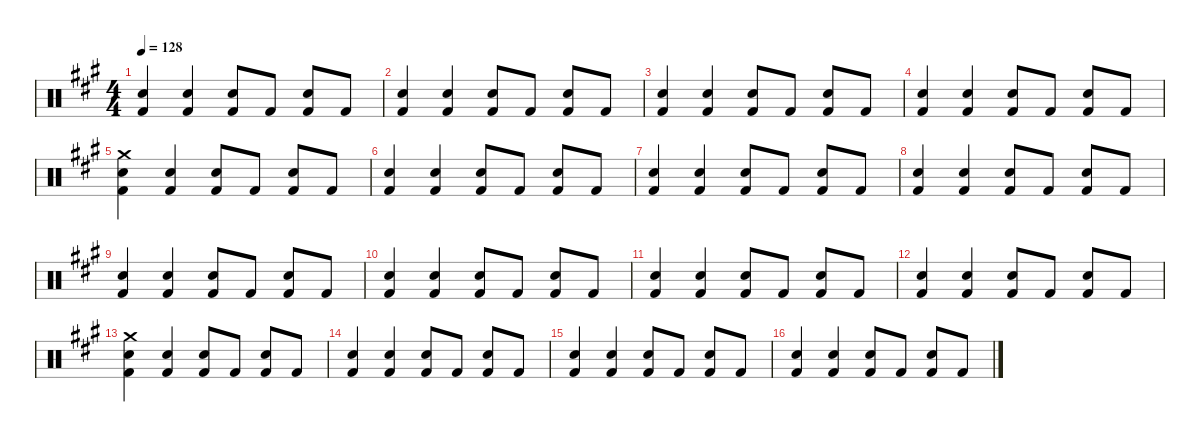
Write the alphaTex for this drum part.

\defaultSystemsLayout 4
\hideDynamics
\bracketExtendMode nobrackets
\singleTrackTrackNamePolicy hidden
\multiTrackTrackNamePolicy hidden
\firstSystemTrackNameMode fullname
\firstSystemTrackNameOrientation horizontal
\otherSystemsTrackNameOrientation horizontal
\track ("Drumkit" "Drums") {instrument percussion}
\staff {score}
\articulation defaults
\ts (4 4)
\tempo 128
\clef neutral
\ks a
("Snare (hit) 2"{acc forcenatural} "Kick (hit) 2"{acc forcenatural}).4{dy f beam Up} ("Snare (hit) 2"{acc forcenatural} "Kick (hit) 2"{acc forcenatural}).4{beam Up} ("Snare (hit) 2"{acc forcenatural} "Kick (hit) 2"{acc forcenatural}).8{beam Up} "Kick (hit) 2"{acc forcenatural}.8{beam Up} ("Snare (hit) 2"{acc forcenatural} "Kick (hit) 2"{acc forcenatural}).8{beam Up} "Kick (hit) 2"{acc forcenatural}.8{beam Up} |
("Snare (hit) 2"{acc forcenatural} "Kick (hit) 2"{acc forcenatural}).4{beam Up} ("Snare (hit) 2"{acc forcenatural} "Kick (hit) 2"{acc forcenatural}).4{beam Up} ("Snare (hit) 2"{acc forcenatural} "Kick (hit) 2"{acc forcenatural}).8{beam Up} "Kick (hit) 2"{acc forcenatural}.8{beam Up} ("Snare (hit) 2"{acc forcenatural} "Kick (hit) 2"{acc forcenatural}).8{beam Up} "Kick (hit) 2"{acc forcenatural}.8{beam Up} |
("Snare (hit) 2"{acc forcenatural} "Kick (hit) 2"{acc forcenatural}).4{beam Up} ("Snare (hit) 2"{acc forcenatural} "Kick (hit) 2"{acc forcenatural}).4{beam Up} ("Snare (hit) 2"{acc forcenatural} "Kick (hit) 2"{acc forcenatural}).8{beam Up} "Kick (hit) 2"{acc forcenatural}.8{beam Up} ("Snare (hit) 2"{acc forcenatural} "Kick (hit) 2"{acc forcenatural}).8{beam Up} "Kick (hit) 2"{acc forcenatural}.8{beam Up} |
("Snare (hit) 2"{acc forcenatural} "Kick (hit) 2"{acc forcenatural}).4{beam Up} ("Snare (hit) 2"{acc forcenatural} "Kick (hit) 2"{acc forcenatural}).4{beam Up} ("Snare (hit) 2"{acc forcenatural} "Kick (hit) 2"{acc forcenatural}).8{beam Up} "Kick (hit) 2"{acc forcenatural}.8{beam Up} ("Snare (hit) 2"{acc forcenatural} "Kick (hit) 2"{acc forcenatural}).8{beam Up} "Kick (hit) 2"{acc forcenatural}.8{beam Up} |
("Crash medium (hit)"{acc forcenatural} "Snare (hit) 2"{acc forcenatural} "Kick (hit) 2"{acc forcenatural}).4{beam Down} ("Snare (hit) 2"{acc forcenatural} "Kick (hit) 2"{acc forcenatural}).4{beam Up} ("Snare (hit) 2"{acc forcenatural} "Kick (hit) 2"{acc forcenatural}).8{beam Up} "Kick (hit) 2"{acc forcenatural}.8{beam Up} ("Snare (hit) 2"{acc forcenatural} "Kick (hit) 2"{acc forcenatural}).8{beam Up} "Kick (hit) 2"{acc forcenatural}.8{beam Up} |
("Snare (hit) 2"{acc forcenatural} "Kick (hit) 2"{acc forcenatural}).4{beam Up} ("Snare (hit) 2"{acc forcenatural} "Kick (hit) 2"{acc forcenatural}).4{beam Up} ("Snare (hit) 2"{acc forcenatural} "Kick (hit) 2"{acc forcenatural}).8{beam Up} "Kick (hit) 2"{acc forcenatural}.8{beam Up} ("Snare (hit) 2"{acc forcenatural} "Kick (hit) 2"{acc forcenatural}).8{beam Up} "Kick (hit) 2"{acc forcenatural}.8{beam Up} |
("Snare (hit) 2"{acc forcenatural} "Kick (hit) 2"{acc forcenatural}).4{beam Up} ("Snare (hit) 2"{acc forcenatural} "Kick (hit) 2"{acc forcenatural}).4{beam Up} ("Snare (hit) 2"{acc forcenatural} "Kick (hit) 2"{acc forcenatural}).8{beam Up} "Kick (hit) 2"{acc forcenatural}.8{beam Up} ("Snare (hit) 2"{acc forcenatural} "Kick (hit) 2"{acc forcenatural}).8{beam Up} "Kick (hit) 2"{acc forcenatural}.8{beam Up} |
("Snare (hit) 2"{acc forcenatural} "Kick (hit) 2"{acc forcenatural}).4{beam Up} ("Snare (hit) 2"{acc forcenatural} "Kick (hit) 2"{acc forcenatural}).4{beam Up} ("Snare (hit) 2"{acc forcenatural} "Kick (hit) 2"{acc forcenatural}).8{beam Up} "Kick (hit) 2"{acc forcenatural}.8{beam Up} ("Snare (hit) 2"{acc forcenatural} "Kick (hit) 2"{acc forcenatural}).8{beam Up} "Kick (hit) 2"{acc forcenatural}.8{beam Up} |
("Snare (hit) 2"{acc forcenatural} "Kick (hit) 2"{acc forcenatural}).4{beam Up} ("Snare (hit) 2"{acc forcenatural} "Kick (hit) 2"{acc forcenatural}).4{beam Up} ("Snare (hit) 2"{acc forcenatural} "Kick (hit) 2"{acc forcenatural}).8{beam Up} "Kick (hit) 2"{acc forcenatural}.8{beam Up} ("Snare (hit) 2"{acc forcenatural} "Kick (hit) 2"{acc forcenatural}).8{beam Up} "Kick (hit) 2"{acc forcenatural}.8{beam Up} |
("Snare (hit) 2"{acc forcenatural} "Kick (hit) 2"{acc forcenatural}).4{beam Up} ("Snare (hit) 2"{acc forcenatural} "Kick (hit) 2"{acc forcenatural}).4{beam Up} ("Snare (hit) 2"{acc forcenatural} "Kick (hit) 2"{acc forcenatural}).8{beam Up} "Kick (hit) 2"{acc forcenatural}.8{beam Up} ("Snare (hit) 2"{acc forcenatural} "Kick (hit) 2"{acc forcenatural}).8{beam Up} "Kick (hit) 2"{acc forcenatural}.8{beam Up} |
("Snare (hit) 2"{acc forcenatural} "Kick (hit) 2"{acc forcenatural}).4{beam Up} ("Snare (hit) 2"{acc forcenatural} "Kick (hit) 2"{acc forcenatural}).4{beam Up} ("Snare (hit) 2"{acc forcenatural} "Kick (hit) 2"{acc forcenatural}).8{beam Up} "Kick (hit) 2"{acc forcenatural}.8{beam Up} ("Snare (hit) 2"{acc forcenatural} "Kick (hit) 2"{acc forcenatural}).8{beam Up} "Kick (hit) 2"{acc forcenatural}.8{beam Up} |
("Snare (hit) 2"{acc forcenatural} "Kick (hit) 2"{acc forcenatural}).4{beam Up} ("Snare (hit) 2"{acc forcenatural} "Kick (hit) 2"{acc forcenatural}).4{beam Up} ("Snare (hit) 2"{acc forcenatural} "Kick (hit) 2"{acc forcenatural}).8{beam Up} "Kick (hit) 2"{acc forcenatural}.8{beam Up} ("Snare (hit) 2"{acc forcenatural} "Kick (hit) 2"{acc forcenatural}).8{beam Up} "Kick (hit) 2"{acc forcenatural}.8{beam Up} |
("Crash medium (hit)"{acc forcenatural} "Snare (hit) 2"{acc forcenatural} "Kick (hit) 2"{acc forcenatural}).4{beam Down} ("Snare (hit) 2"{acc forcenatural} "Kick (hit) 2"{acc forcenatural}).4{beam Up} ("Snare (hit) 2"{acc forcenatural} "Kick (hit) 2"{acc forcenatural}).8{beam Up} "Kick (hit) 2"{acc forcenatural}.8{beam Up} ("Snare (hit) 2"{acc forcenatural} "Kick (hit) 2"{acc forcenatural}).8{beam Up} "Kick (hit) 2"{acc forcenatural}.8{beam Up} |
("Snare (hit) 2"{acc forcenatural} "Kick (hit) 2"{acc forcenatural}).4{beam Up} ("Snare (hit) 2"{acc forcenatural} "Kick (hit) 2"{acc forcenatural}).4{beam Up} ("Snare (hit) 2"{acc forcenatural} "Kick (hit) 2"{acc forcenatural}).8{beam Up} "Kick (hit) 2"{acc forcenatural}.8{beam Up} ("Snare (hit) 2"{acc forcenatural} "Kick (hit) 2"{acc forcenatural}).8{beam Up} "Kick (hit) 2"{acc forcenatural}.8{beam Up} |
("Snare (hit) 2"{acc forcenatural} "Kick (hit) 2"{acc forcenatural}).4{beam Up} ("Snare (hit) 2"{acc forcenatural} "Kick (hit) 2"{acc forcenatural}).4{beam Up} ("Snare (hit) 2"{acc forcenatural} "Kick (hit) 2"{acc forcenatural}).8{beam Up} "Kick (hit) 2"{acc forcenatural}.8{beam Up} ("Snare (hit) 2"{acc forcenatural} "Kick (hit) 2"{acc forcenatural}).8{beam Up} "Kick (hit) 2"{acc forcenatural}.8{beam Up} |
("Snare (hit) 2"{acc forcenatural} "Kick (hit) 2"{acc forcenatural}).4{beam Up} ("Snare (hit) 2"{acc forcenatural} "Kick (hit) 2"{acc forcenatural}).4{beam Up} ("Snare (hit) 2"{acc forcenatural} "Kick (hit) 2"{acc forcenatural}).8{beam Up} "Kick (hit) 2"{acc forcenatural}.8{beam Up} ("Snare (hit) 2"{acc forcenatural} "Kick (hit) 2"{acc forcenatural}).8{beam Up} "Kick (hit) 2"{acc forcenatural}.8{beam Up}
